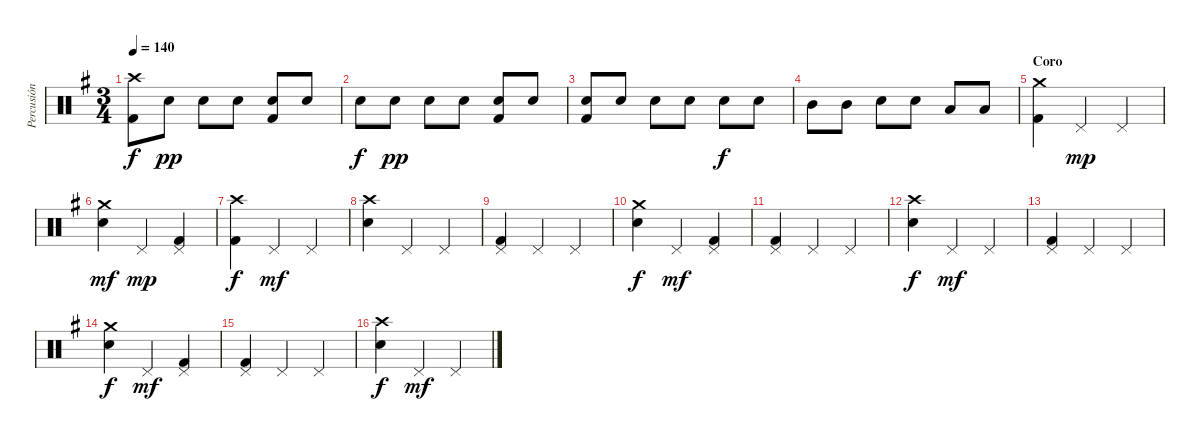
\track ("Percusión" "Percusión") {instrument percussion}
\staff {score}
\articulation defaults
\ts (3 4)
\tempo 140
\clef neutral
\ks g
("Crash high (hit)" "Kick (hit) 2").8{dy f} "Snare (hit) 2".8{dy pp} "Snare (hit) 2".8 "Snare (hit) 2".8 ("Snare (hit) 2" "Kick (hit) 2").8 "Snare (hit) 2".8 |
"Snare (hit) 2".8{dy f} "Snare (hit) 2".8{dy pp} "Snare (hit) 2".8 "Snare (hit) 2".8 ("Snare (hit) 2" "Kick (hit) 2").8 "Snare (hit) 2".8 |
("Snare (hit) 2" "Kick (hit) 2").8 "Snare (hit) 2".8 "Snare (hit) 2".8 "Snare (hit) 2".8 "Snare (hit) 2".8{dy f} "Snare (hit) 2".8 |
"Mid Tom (hit)".8 "Mid Tom (hit)".8 "Snare (hit) 2".8 "Snare (hit) 2".8 "Low Tom (hit)".8 "Low Tom (hit)".8 |
\section ("" "Coro")
("Crash medium (hit)" "Kick (hit) 2").4 "Pedal Hi-Hat (hit)".4{dy mp} "Pedal Hi-Hat (hit)".4 |
("Crash medium (hit)" "Snare (hit) 2").4{dy mf} "Pedal Hi-Hat (hit)".4{dy mp} ("Pedal Hi-Hat (hit)" "Kick (hit) 2").4 |
("Crash high (hit)" "Kick (hit) 2").4{dy f} "Pedal Hi-Hat (hit)".4{dy mf} "Pedal Hi-Hat (hit)".4 |
("Crash high (hit)" "Snare (hit) 2").4 "Pedal Hi-Hat (hit)".4 "Pedal Hi-Hat (hit)".4 |
("Pedal Hi-Hat (hit)" "Kick (hit) 2").4 "Pedal Hi-Hat (hit)".4 "Pedal Hi-Hat (hit)".4 |
("Crash medium (hit)" "Snare (hit) 2").4{dy f} "Pedal Hi-Hat (hit)".4{dy mf} ("Pedal Hi-Hat (hit)" "Kick (hit) 2").4 |
("Pedal Hi-Hat (hit)" "Kick (hit) 2").4 "Pedal Hi-Hat (hit)".4 "Pedal Hi-Hat (hit)".4 |
("Crash high (hit)" "Snare (hit) 2").4{dy f} "Pedal Hi-Hat (hit)".4{dy mf} "Pedal Hi-Hat (hit)".4 |
("Pedal Hi-Hat (hit)" "Kick (hit) 2").4 "Pedal Hi-Hat (hit)".4 "Pedal Hi-Hat (hit)".4 |
("Crash medium (hit)" "Snare (hit) 2").4{dy f} "Pedal Hi-Hat (hit)".4{dy mf} ("Pedal Hi-Hat (hit)" "Kick (hit) 2").4 |
("Pedal Hi-Hat (hit)" "Kick (hit) 2").4 "Pedal Hi-Hat (hit)".4 "Pedal Hi-Hat (hit)".4 |
("Crash high (hit)" "Snare (hit) 2").4{dy f} "Pedal Hi-Hat (hit)".4{dy mf} "Pedal Hi-Hat (hit)".4
